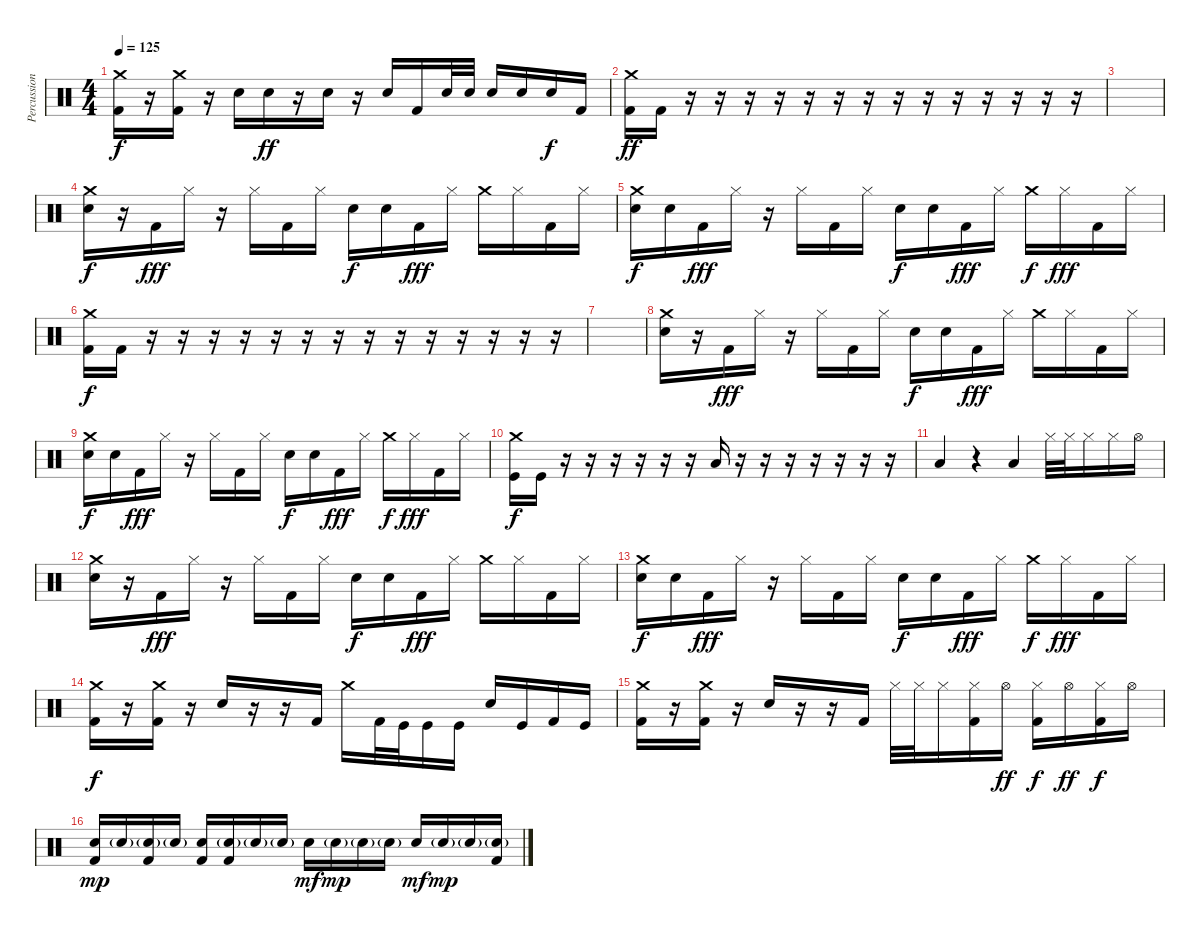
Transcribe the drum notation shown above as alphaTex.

\track ("Percussion" "Percussion") {instrument percussion}
\staff {score}
\articulation defaults
\ts (4 4)
\tempo 125
\clef neutral
\ks c
("Crash medium (hit)" "Kick (hit) 2").16{dy f} r.16 ("Crash medium (hit)" "Kick (hit) 2").16 r.16 "Electric Snare (hit)".16 "Electric Snare (hit)".16{dy ff} r.16 "Electric Snare (hit)".16 r.16 "Electric Snare (hit)".16 "Kick (hit) 2".16 "Electric Snare (hit)".32 "Electric Snare (hit)".32 "Electric Snare (hit)".16 "Electric Snare (hit)".16 "Electric Snare (hit)".16{dy f} "Kick (hit) 2".16 |
("Crash medium (hit)" "Kick (hit) 2").16{dy ff} "Kick (hit) 2".16 r.16 r.16 r.16 r.16 r.16 r.16 r.16 r.16 r.16 r.16 r.16 r.16 r.16 r.16 |
|
("Crash medium (hit)" "Electric Snare (hit)").16{dy f} r.16 "Kick (hit) 2".16{dy fff} "Hi-Hat (closed)".16 r.16 "Hi-Hat (closed)".16 "Kick (hit) 2".16 "Hi-Hat (closed)".16 "Electric Snare (hit)".16{dy f} "Electric Snare (hit)".16 "Kick (hit) 2".16{dy fff} "Hi-Hat (closed)".16 "Crash medium (hit)".16 "Hi-Hat (closed)".16 "Kick (hit) 2".16 "Hi-Hat (closed)".16 |
("Crash medium (hit)" "Electric Snare (hit)").16{dy f} "Electric Snare (hit)".16 "Kick (hit) 2".16{dy fff} "Hi-Hat (closed)".16 r.16 "Hi-Hat (closed)".16 "Kick (hit) 2".16 "Hi-Hat (closed)".16 "Electric Snare (hit)".16{dy f} "Electric Snare (hit)".16 "Kick (hit) 2".16{dy fff} "Hi-Hat (closed)".16 "Crash medium (hit)".16{dy f} "Hi-Hat (closed)".16{dy fff} "Kick (hit) 2".16 "Hi-Hat (closed)".16 |
("Crash medium (hit)" "Kick (hit) 2").16{dy f} "Kick (hit) 2".16 r.16 r.16 r.16 r.16 r.16 r.16 r.16 r.16 r.16 r.16 r.16 r.16 r.16 r.16 |
|
("Crash medium (hit)" "Electric Snare (hit)").16 r.16 "Kick (hit) 2".16{dy fff} "Hi-Hat (closed)".16 r.16 "Hi-Hat (closed)".16 "Kick (hit) 2".16 "Hi-Hat (closed)".16 "Electric Snare (hit)".16{dy f} "Electric Snare (hit)".16 "Kick (hit) 2".16{dy fff} "Hi-Hat (closed)".16 "Crash medium (hit)".16 "Hi-Hat (closed)".16 "Kick (hit) 2".16 "Hi-Hat (closed)".16 |
("Crash medium (hit)" "Electric Snare (hit)").16{dy f} "Electric Snare (hit)".16 "Kick (hit) 2".16{dy fff} "Hi-Hat (closed)".16 r.16 "Hi-Hat (closed)".16 "Kick (hit) 2".16 "Hi-Hat (closed)".16 "Electric Snare (hit)".16{dy f} "Electric Snare (hit)".16 "Kick (hit) 2".16{dy fff} "Hi-Hat (closed)".16 "Crash medium (hit)".16{dy f} "Hi-Hat (closed)".16{dy fff} "Kick (hit) 2".16 "Hi-Hat (closed)".16 |
("Crash medium (hit)" "Kick (hit)").16{dy f} "Kick (hit)".16 r.16 r.16 r.16 r.16 r.16 r.16 "Low Floor Tom (hit)".16 r.16 r.16 r.16 r.16 r.16 r.16 r.16 |
"Low Floor Tom (hit)".4 r.4 "Low Floor Tom (hit)".4 "Hi-Hat (closed)".32 "Hi-Hat (closed)".32 "Hi-Hat (closed)".16 "Hi-Hat (closed)".16 "Hi-Hat (open)".16 |
("Crash medium (hit)" "Electric Snare (hit)").16 r.16 "Kick (hit) 2".16{dy fff} "Hi-Hat (closed)".16 r.16 "Hi-Hat (closed)".16 "Kick (hit) 2".16 "Hi-Hat (closed)".16 "Electric Snare (hit)".16{dy f} "Electric Snare (hit)".16 "Kick (hit) 2".16{dy fff} "Hi-Hat (closed)".16 "Crash medium (hit)".16 "Hi-Hat (closed)".16 "Kick (hit) 2".16 "Hi-Hat (closed)".16 |
("Crash medium (hit)" "Electric Snare (hit)").16{dy f} "Electric Snare (hit)".16 "Kick (hit) 2".16{dy fff} "Hi-Hat (closed)".16 r.16 "Hi-Hat (closed)".16 "Kick (hit) 2".16 "Hi-Hat (closed)".16 "Electric Snare (hit)".16{dy f} "Electric Snare (hit)".16 "Kick (hit) 2".16{dy fff} "Hi-Hat (closed)".16 "Crash medium (hit)".16{dy f} "Hi-Hat (closed)".16{dy fff} "Kick (hit) 2".16 "Hi-Hat (closed)".16 |
("Crash medium (hit)" "Kick (hit) 2").16{dy f} r.16 ("Crash medium (hit)" "Kick (hit) 2").16 r.16 "Electric Snare (hit)".16 r.16 r.16 "Kick (hit) 2".16 "Crash medium (hit)".16 "Kick (hit) 2".32 "Kick (hit)".32 "Kick (hit)".16 "Kick (hit)".16 "Electric Snare (hit)".16 "Kick (hit)".16 "Kick (hit) 2".16 "Kick (hit)".16 |
("Crash medium (hit)" "Kick (hit) 2").16 r.16 ("Crash medium (hit)" "Kick (hit) 2").16 r.16 "Electric Snare (hit)".16 r.16 r.16 "Kick (hit) 2".16 "Hi-Hat (closed)".32 "Hi-Hat (closed)".32 "Hi-Hat (closed)".16 ("Hi-Hat (closed)" "Kick (hit) 2").16 "Hi-Hat (open)".16{dy ff} ("Hi-Hat (closed)" "Kick (hit) 2").16{dy f} "Hi-Hat (open)".16{dy ff} ("Hi-Hat (closed)" "Kick (hit) 2").16{dy f} "Hi-Hat (open)".16 |
("Snare (hit) 2" "Kick (hit) 2").16{dy mp} "Snare (hit) 2"{g}.16 ("Snare (hit) 2"{g} "Kick (hit) 2").16 "Snare (hit) 2"{g}.16 ("Snare (hit) 2" "Kick (hit) 2").16 ("Snare (hit) 2"{g} "Kick (hit) 2").16 "Snare (hit) 2"{g}.16 "Snare (hit) 2"{g}.16 "Snare (hit) 2".16{dy mf} "Snare (hit) 2"{g}.16{dy mp} "Snare (hit) 2"{g}.16 "Snare (hit) 2"{g}.16 "Snare (hit) 2".16{dy mf} "Snare (hit) 2"{g}.16{dy mp} "Snare (hit) 2"{g}.16 ("Snare (hit) 2"{g} "Kick (hit) 2").16
